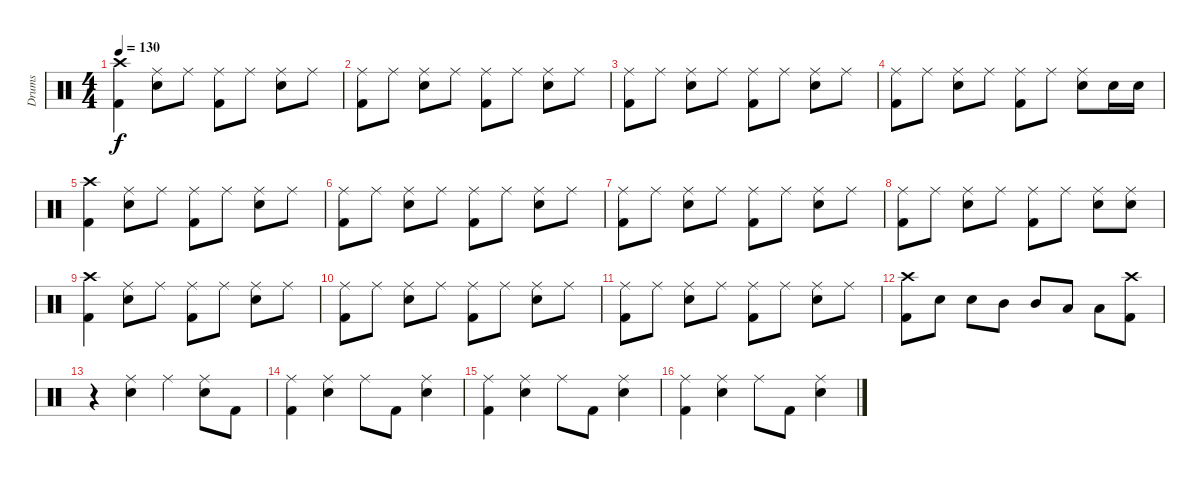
\track ("Drums" "Drums") {instrument percussion}
\staff {score}
\articulation defaults
\ts (4 4)
\tempo 130
\clef neutral
\ks c
("Crash high (hit)" "Kick (hit) 2").4{dy f} ("Ride (middle)" "Electric Snare (hit)").8 "Ride (middle)".8 ("Ride (middle)" "Kick (hit) 2").8 "Ride (middle)".8 ("Ride (middle)" "Electric Snare (hit)").8 "Ride (middle)".8 |
("Ride (middle)" "Kick (hit) 2").8 "Ride (middle)".8 ("Ride (middle)" "Electric Snare (hit)").8 "Ride (middle)".8 ("Ride (middle)" "Kick (hit) 2").8 "Ride (middle)".8 ("Ride (middle)" "Electric Snare (hit)").8 "Ride (middle)".8 |
("Ride (middle)" "Kick (hit) 2").8 "Ride (middle)".8 ("Ride (middle)" "Electric Snare (hit)").8 "Ride (middle)".8 ("Ride (middle)" "Kick (hit) 2").8 "Ride (middle)".8 ("Ride (middle)" "Electric Snare (hit)").8 "Ride (middle)".8 |
("Ride (middle)" "Kick (hit) 2").8 "Ride (middle)".8 ("Ride (middle)" "Electric Snare (hit)").8 "Ride (middle)".8 ("Ride (middle)" "Kick (hit) 2").8 "Ride (middle)".8 ("Ride (middle)" "Electric Snare (hit)").8 "Electric Snare (hit)".16 "Electric Snare (hit)".16 |
("Crash high (hit)" "Kick (hit) 2").4 ("Ride (middle)" "Electric Snare (hit)").8 "Ride (middle)".8 ("Ride (middle)" "Kick (hit) 2").8 "Ride (middle)".8 ("Ride (middle)" "Electric Snare (hit)").8 "Ride (middle)".8 |
("Ride (middle)" "Kick (hit) 2").8 "Ride (middle)".8 ("Ride (middle)" "Electric Snare (hit)").8 "Ride (middle)".8 ("Ride (middle)" "Kick (hit) 2").8 "Ride (middle)".8 ("Ride (middle)" "Electric Snare (hit)").8 "Ride (middle)".8 |
("Ride (middle)" "Kick (hit) 2").8 "Ride (middle)".8 ("Ride (middle)" "Electric Snare (hit)").8 "Ride (middle)".8 ("Ride (middle)" "Kick (hit) 2").8 "Ride (middle)".8 ("Ride (middle)" "Electric Snare (hit)").8 "Ride (middle)".8 |
("Ride (middle)" "Kick (hit) 2").8 "Ride (middle)".8 ("Ride (middle)" "Electric Snare (hit)").8 "Ride (middle)".8 ("Ride (middle)" "Kick (hit) 2").8 "Ride (middle)".8 ("Ride (middle)" "Electric Snare (hit)").8 ("Ride (middle)" "Electric Snare (hit)").8 |
("Crash high (hit)" "Kick (hit) 2").4 ("Ride (middle)" "Electric Snare (hit)").8 "Ride (middle)".8 ("Ride (middle)" "Kick (hit) 2").8 "Ride (middle)".8 ("Ride (middle)" "Electric Snare (hit)").8 "Ride (middle)".8 |
("Ride (middle)" "Kick (hit) 2").8 "Ride (middle)".8 ("Ride (middle)" "Electric Snare (hit)").8 "Ride (middle)".8 ("Ride (middle)" "Kick (hit) 2").8 "Ride (middle)".8 ("Ride (middle)" "Electric Snare (hit)").8 "Ride (middle)".8 |
("Ride (middle)" "Kick (hit) 2").8 "Ride (middle)".8 ("Ride (middle)" "Electric Snare (hit)").8 "Ride (middle)".8 ("Ride (middle)" "Kick (hit) 2").8 "Ride (middle)".8 ("Ride (middle)" "Electric Snare (hit)").8 "Ride (middle)".8 |
("Crash high (hit)" "Kick (hit) 2").8 "Electric Snare (hit)".8 "Electric Snare (hit)".8 "Mid Tom (hit)".8 "Mid Tom (hit)".8 "Low Tom (hit)".8 "Low Tom (hit)".8 ("Crash high (hit)" "Kick (hit) 2").8 |
r.4 ("Ride (middle)" "Electric Snare (hit)").4 "Ride (middle)".4 ("Ride (middle)" "Electric Snare (hit)").8 "Kick (hit) 2".8 |
("Ride (middle)" "Kick (hit) 2").4 ("Ride (middle)" "Electric Snare (hit)").4 "Ride (middle)".8 "Kick (hit) 2".8 ("Ride (middle)" "Electric Snare (hit)").4 |
("Ride (middle)" "Kick (hit) 2").4 ("Ride (middle)" "Electric Snare (hit)").4 "Ride (middle)".8 "Kick (hit) 2".8 ("Ride (middle)" "Electric Snare (hit)").4 |
("Ride (middle)" "Kick (hit) 2").4 ("Ride (middle)" "Electric Snare (hit)").4 "Ride (middle)".8 "Kick (hit) 2".8 ("Ride (middle)" "Electric Snare (hit)").4
